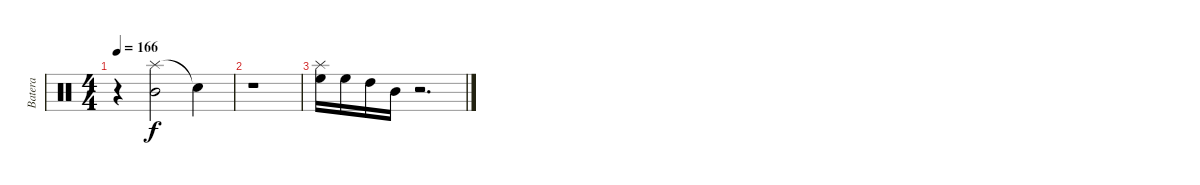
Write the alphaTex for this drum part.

\track ("Batera" "Batera") {instrument percussion}
\staff {score}
\articulation defaults
\ts (4 4)
\tempo 166
\clef neutral
\ks c
r.4{dy f} ("Splash (hit)" "Mid Tom (hit)").2 "Snare (hit)"{t}.4 |
r.1 |
("Splash (hit)" "High Floor Tom (hit)").16 "High Floor Tom (hit)".16 "High Tom (hit)".16 "Mid Tom (hit)".16 r.2{d}
